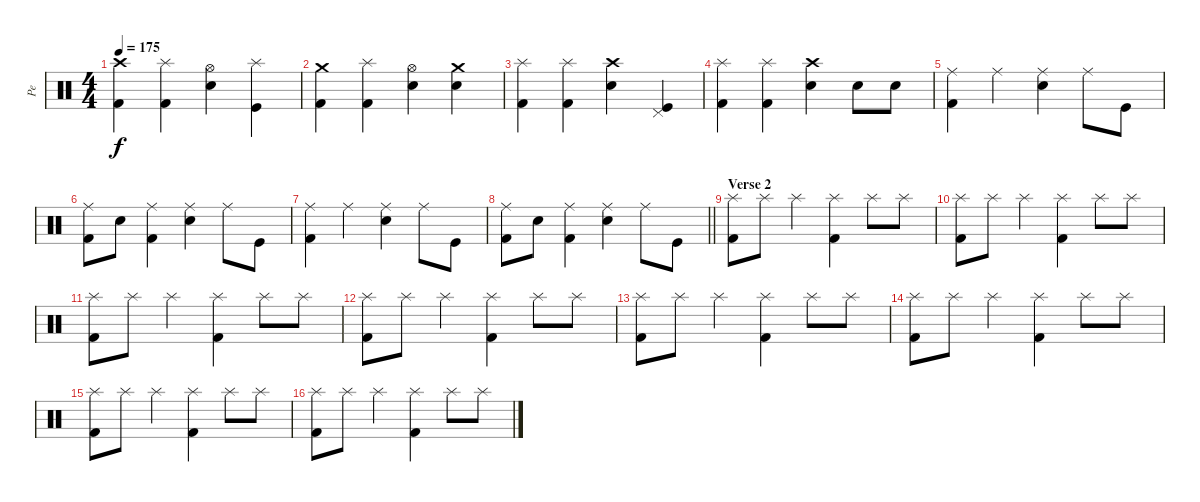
\track ("Pe" "Pe") {instrument percussion}
\staff {score}
\articulation defaults
\ts (4 4)
\tempo 175
\clef neutral
\ks c
("Kick (hit) 2" "Crash high (hit)").4{dy f} ("Kick (hit) 2" "Splash (hit)").4 ("Electric Snare (hit)" "Hi-Hat (open)").4 ("Kick (hit)" "Splash (hit)").4 |
("Kick (hit) 2" "Crash medium (hit)").4 ("Kick (hit) 2" "Splash (hit)").4 ("Electric Snare (hit)" "Hi-Hat (open)").4 ("Electric Snare (hit)" "Crash medium (hit)").4 |
("Kick (hit) 2" "Splash (hit)").4 ("Kick (hit) 2" "Splash (hit)").4 ("Electric Snare (hit)" "Crash high (hit)").4 ("Kick (hit)" "Pedal Hi-Hat (hit)").4 |
("Kick (hit) 2" "Splash (hit)").4 ("Kick (hit) 2" "Splash (hit)").4 ("Electric Snare (hit)" "Crash high (hit)").4 "Electric Snare (hit)".8 "Electric Snare (hit)".8 |
("Kick (hit) 2" "Ride (middle)").4{volume 11} "Ride (middle)".4 ("Electric Snare (hit)" "Ride (middle)").4 "Ride (middle)".8 "Kick (hit)".8 |
("Kick (hit) 2" "Ride (middle)").8 "Electric Snare (hit)".8 ("Kick (hit) 2" "Ride (middle)").4 ("Electric Snare (hit)" "Ride (middle)").4 "Ride (middle)".8 "Kick (hit)".8 |
("Kick (hit) 2" "Ride (middle)").4 "Ride (middle)".4 ("Electric Snare (hit)" "Ride (middle)").4 "Ride (middle)".8 "Kick (hit)".8 |
\barLineRight lightlight
("Kick (hit) 2" "Ride (middle)").8 "Electric Snare (hit)".8 ("Kick (hit) 2" "Ride (middle)").4 ("Electric Snare (hit)" "Ride (middle)").4 "Ride (middle)".8 "Kick (hit)".8 |
\section ("" "Verse 2")
("Kick (hit) 2" "Splash (hit)").8 "Splash (hit)".8 "Splash (hit)".4 ("Kick (hit) 2" "Splash (hit)").4 "Splash (hit)".8 "Splash (hit)".8 |
("Kick (hit) 2" "Splash (hit)").8 "Splash (hit)".8 "Splash (hit)".4 ("Kick (hit) 2" "Splash (hit)").4 "Splash (hit)".8 "Splash (hit)".8 |
("Kick (hit) 2" "Splash (hit)").8 "Splash (hit)".8 "Splash (hit)".4 ("Kick (hit) 2" "Splash (hit)").4 "Splash (hit)".8 "Splash (hit)".8 |
("Kick (hit) 2" "Splash (hit)").8 "Splash (hit)".8 "Splash (hit)".4 ("Kick (hit) 2" "Splash (hit)").4 "Splash (hit)".8 "Splash (hit)".8 |
("Kick (hit) 2" "Splash (hit)").8 "Splash (hit)".8 "Splash (hit)".4 ("Kick (hit) 2" "Splash (hit)").4 "Splash (hit)".8 "Splash (hit)".8 |
("Kick (hit) 2" "Splash (hit)").8 "Splash (hit)".8 "Splash (hit)".4 ("Kick (hit) 2" "Splash (hit)").4 "Splash (hit)".8 "Splash (hit)".8 |
("Kick (hit) 2" "Splash (hit)").8 "Splash (hit)".8 "Splash (hit)".4 ("Kick (hit) 2" "Splash (hit)").4 "Splash (hit)".8 "Splash (hit)".8 |
("Kick (hit) 2" "Splash (hit)").8 "Splash (hit)".8 "Splash (hit)".4 ("Kick (hit) 2" "Splash (hit)").4 "Splash (hit)".8 "Splash (hit)".8
